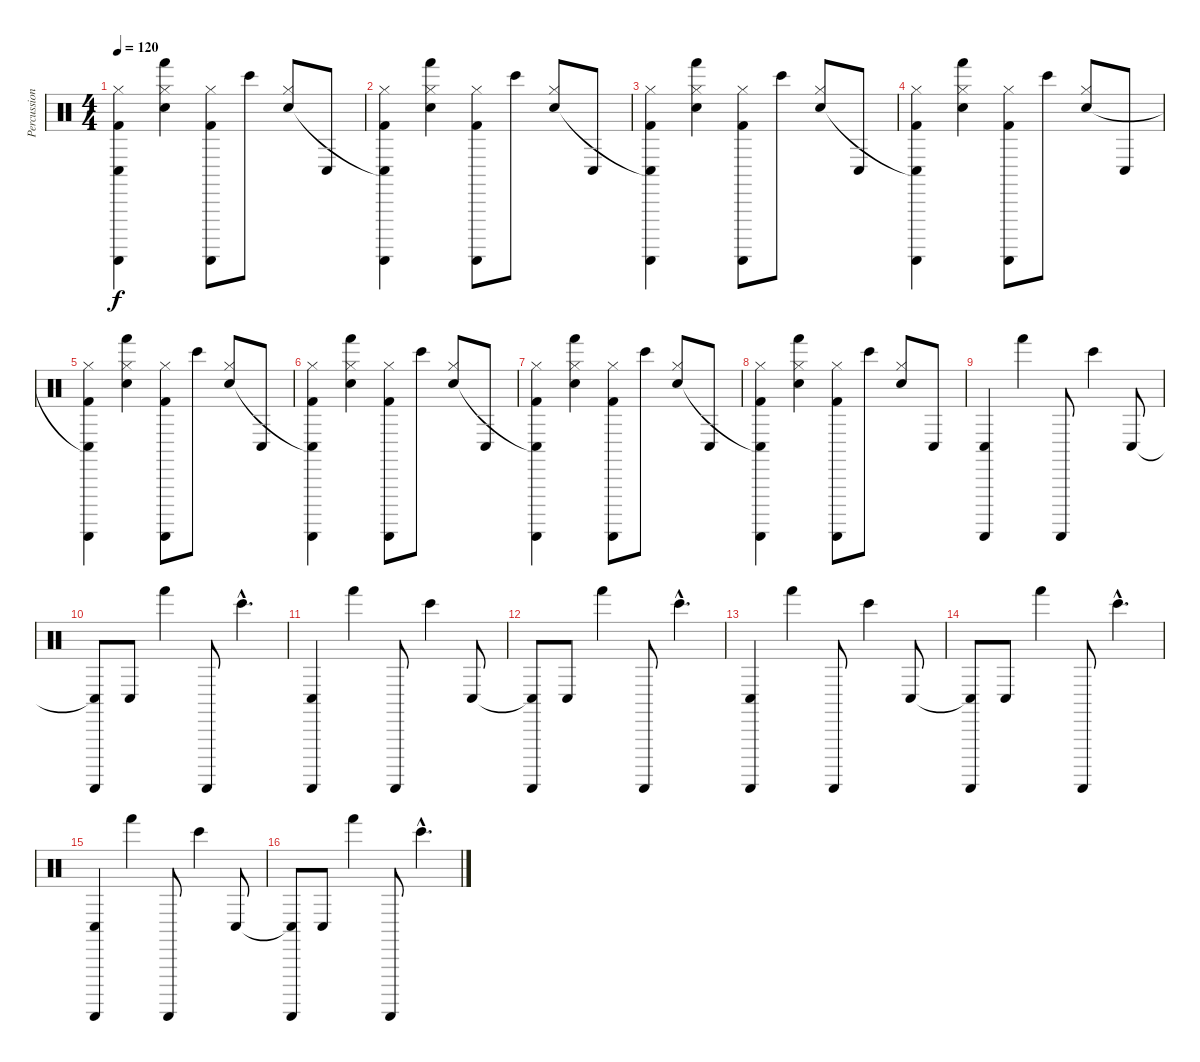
\track ("Percussions" "Percussion") {instrument percussion}
\staff {score}
\articulation defaults
\ts (4 4)
\tempo 120
\clef neutral
\ks c
("Hi-Hat (closed)" "Conga low (hit)"{t} "Guiro (scrap-return)" "Kick (hit) 2").4{dy f} ("Hi-Hat (closed)" "Hand (hit)" "Snare (hit) 2").4 ("Hi-Hat (closed)" "Guiro (scrap-return)" "Kick (hit) 2").8 "Bongo High (hit)".8 ("Hi-Hat (closed)" "Snare (hit) 2").8 "Conga low (hit)".8 |
("Hi-Hat (closed)" "Conga low (hit)"{t} "Guiro (scrap-return)" "Kick (hit) 2").4 ("Hi-Hat (closed)" "Hand (hit)" "Snare (hit) 2").4 ("Hi-Hat (closed)" "Guiro (scrap-return)" "Kick (hit) 2").8 "Bongo High (hit)".8 ("Hi-Hat (closed)" "Snare (hit) 2").8 "Conga low (hit)".8 |
("Hi-Hat (closed)" "Conga low (hit)"{t} "Guiro (scrap-return)" "Kick (hit) 2").4 ("Hi-Hat (closed)" "Hand (hit)" "Snare (hit) 2").4 ("Hi-Hat (closed)" "Guiro (scrap-return)" "Kick (hit) 2").8 "Bongo High (hit)".8 ("Hi-Hat (closed)" "Snare (hit) 2").8 "Conga low (hit)".8 |
("Hi-Hat (closed)" "Conga low (hit)"{t} "Guiro (scrap-return)" "Kick (hit) 2").4 ("Hi-Hat (closed)" "Hand (hit)" "Snare (hit) 2").4 ("Hi-Hat (closed)" "Guiro (scrap-return)" "Kick (hit) 2").8 "Bongo High (hit)".8 ("Hi-Hat (closed)" "Snare (hit) 2").8 "Conga low (hit)".8 |
("Hi-Hat (closed)" "Conga low (hit)"{t} "Guiro (scrap-return)" "Kick (hit) 2").4 ("Hi-Hat (closed)" "Hand (hit)" "Snare (hit) 2").4 ("Hi-Hat (closed)" "Guiro (scrap-return)" "Kick (hit) 2").8 "Bongo High (hit)".8 ("Hi-Hat (closed)" "Snare (hit) 2").8 "Conga low (hit)".8 |
("Hi-Hat (closed)" "Conga low (hit)"{t} "Guiro (scrap-return)" "Kick (hit) 2").4 ("Hi-Hat (closed)" "Hand (hit)" "Snare (hit) 2").4 ("Hi-Hat (closed)" "Guiro (scrap-return)" "Kick (hit) 2").8 "Bongo High (hit)".8 ("Hi-Hat (closed)" "Snare (hit) 2").8 "Conga low (hit)".8 |
("Hi-Hat (closed)" "Conga low (hit)"{t} "Guiro (scrap-return)" "Kick (hit) 2").4 ("Hi-Hat (closed)" "Hand (hit)" "Snare (hit) 2").4 ("Hi-Hat (closed)" "Guiro (scrap-return)" "Kick (hit) 2").8 "Bongo High (hit)".8 ("Hi-Hat (closed)" "Snare (hit) 2").8 "Conga low (hit)".8 |
("Hi-Hat (closed)" "Conga low (hit)"{t} "Guiro (scrap-return)" "Kick (hit) 2").4 ("Hi-Hat (closed)" "Hand (hit)" "Snare (hit) 2").4 ("Hi-Hat (closed)" "Guiro (scrap-return)" "Kick (hit) 2").8 "Bongo High (hit)".8 ("Hi-Hat (closed)" "Snare (hit) 2").8 "Conga low (hit)".8 |
("Conga low (hit)" "Guiro (scrap-return)").4 "Hand (hit)".4 "Guiro (scrap-return)".8 "Bongo High (hit)".4 "Conga low (hit)".8 |
("Conga low (hit)"{t} "Guiro (scrap-return)").8 "Conga low (hit)".8 "Hand (hit)".4 "Guiro (scrap-return)".8 "Bongo High (hit)"{hac}.4{d} |
("Conga low (hit)" "Guiro (scrap-return)").4 "Hand (hit)".4 "Guiro (scrap-return)".8 "Bongo High (hit)".4 "Conga low (hit)".8 |
("Conga low (hit)"{t} "Guiro (scrap-return)").8 "Conga low (hit)".8 "Hand (hit)".4 "Guiro (scrap-return)".8 "Bongo High (hit)"{hac}.4{d} |
("Conga low (hit)" "Guiro (scrap-return)").4 "Hand (hit)".4 "Guiro (scrap-return)".8 "Bongo High (hit)".4 "Conga low (hit)".8 |
("Conga low (hit)"{t} "Guiro (scrap-return)").8 "Conga low (hit)".8 "Hand (hit)".4 "Guiro (scrap-return)".8 "Bongo High (hit)"{hac}.4{d} |
("Conga low (hit)" "Guiro (scrap-return)").4 "Hand (hit)".4 "Guiro (scrap-return)".8 "Bongo High (hit)".4 "Conga low (hit)".8 |
("Conga low (hit)"{t} "Guiro (scrap-return)").8 "Conga low (hit)".8 "Hand (hit)".4 "Guiro (scrap-return)".8 "Bongo High (hit)"{hac}.4{d}
